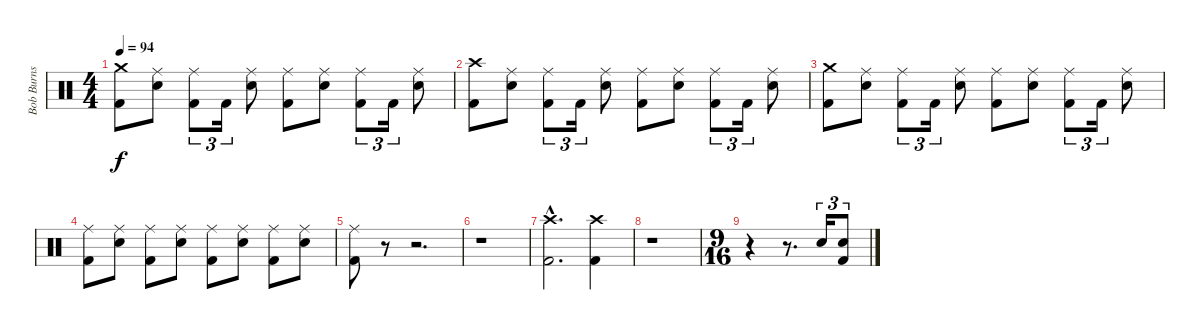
\track ("Bob Burns (drums)" "Bob Burns ") {instrument percussion}
\staff {score}
\articulation defaults
\ts (4 4)
\tempo 94
\clef neutral
\ks c
("Crash medium (hit)" "Kick (hit) 2").8{dy f} ("Ride (middle)" "Electric Snare (hit)").8 ("Ride (middle)" "Kick (hit) 2").8{tu (3 2)} "Kick (hit) 2".16{tu (3 2)} ("Ride (middle)" "Electric Snare (hit)").8 ("Ride (middle)" "Kick (hit) 2").8 ("Ride (middle)" "Electric Snare (hit)").8 ("Ride (middle)" "Kick (hit) 2").8{tu (3 2)} "Kick (hit) 2".16{tu (3 2)} ("Ride (middle)" "Electric Snare (hit)").8 |
("Crash high (hit)" "Kick (hit) 2").8 ("Ride (middle)" "Electric Snare (hit)").8 ("Ride (middle)" "Kick (hit) 2").8{tu (3 2)} "Kick (hit) 2".16{tu (3 2)} ("Ride (middle)" "Electric Snare (hit)").8 ("Ride (middle)" "Kick (hit) 2").8 ("Ride (middle)" "Electric Snare (hit)").8 ("Ride (middle)" "Kick (hit) 2").8{tu (3 2)} "Kick (hit) 2".16{tu (3 2)} ("Ride (middle)" "Electric Snare (hit)").8 |
("Crash medium (hit)" "Kick (hit) 2").8 ("Ride (middle)" "Electric Snare (hit)").8 ("Ride (middle)" "Kick (hit) 2").8{tu (3 2)} "Kick (hit) 2".16{tu (3 2)} ("Ride (middle)" "Electric Snare (hit)").8 ("Ride (middle)" "Kick (hit) 2").8 ("Ride (middle)" "Electric Snare (hit)").8 ("Ride (middle)" "Kick (hit) 2").8{tu (3 2)} "Kick (hit) 2".16{tu (3 2)} ("Ride (middle)" "Electric Snare (hit)").8 |
("Ride (middle)" "Kick (hit) 2").8 ("Ride (middle)" "Electric Snare (hit)").8 ("Ride (middle)" "Kick (hit) 2").8 ("Ride (middle)" "Electric Snare (hit)").8 ("Ride (middle)" "Kick (hit) 2").8 ("Ride (middle)" "Electric Snare (hit)").8 ("Ride (middle)" "Kick (hit) 2").8 ("Ride (middle)" "Electric Snare (hit)").8 |
("Ride (middle)" "Kick (hit) 2").8 r.8 r.2{d} |
r.1 |
("Crash high (hit)"{hac} "Kick (hit) 2"{hac}).2{d} ("Crash high (hit)" "Kick (hit) 2").4 |
r.1 |
\ts (9 16)
r.4 r.8{d} "Electric Snare (hit)".16{tu (3 2)} ("Electric Snare (hit)" "Kick (hit) 2").8{tu (3 2)}
